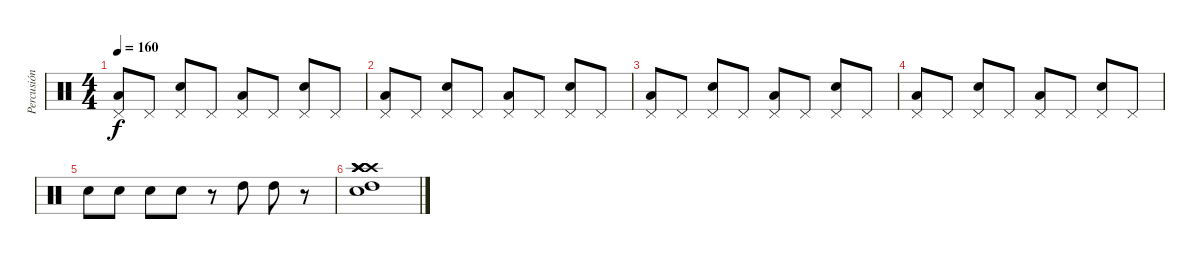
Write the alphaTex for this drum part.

\track ("Percusión" "Percusión") {instrument percussion}
\staff {score}
\articulation defaults
\ts (4 4)
\tempo 160
\clef neutral
\ks c
("Pedal Hi-Hat (hit)" "Low Floor Tom (hit)").8{dy f} "Pedal Hi-Hat (hit)".8 ("Pedal Hi-Hat (hit)" "Snare (hit) 2").8 "Pedal Hi-Hat (hit)".8 ("Pedal Hi-Hat (hit)" "Low Floor Tom (hit)").8 "Pedal Hi-Hat (hit)".8 ("Pedal Hi-Hat (hit)" "Snare (hit) 2").8 "Pedal Hi-Hat (hit)".8 |
("Pedal Hi-Hat (hit)" "Low Floor Tom (hit)").8 "Pedal Hi-Hat (hit)".8 ("Pedal Hi-Hat (hit)" "Snare (hit) 2").8 "Pedal Hi-Hat (hit)".8 ("Pedal Hi-Hat (hit)" "Low Floor Tom (hit)").8 "Pedal Hi-Hat (hit)".8 ("Pedal Hi-Hat (hit)" "Snare (hit) 2").8 "Pedal Hi-Hat (hit)".8 |
("Pedal Hi-Hat (hit)" "Low Floor Tom (hit)").8 "Pedal Hi-Hat (hit)".8 ("Pedal Hi-Hat (hit)" "Snare (hit) 2").8 "Pedal Hi-Hat (hit)".8 ("Pedal Hi-Hat (hit)" "Low Floor Tom (hit)").8 "Pedal Hi-Hat (hit)".8 ("Pedal Hi-Hat (hit)" "Snare (hit) 2").8 "Pedal Hi-Hat (hit)".8 |
("Pedal Hi-Hat (hit)" "Low Floor Tom (hit)").8 "Pedal Hi-Hat (hit)".8 ("Pedal Hi-Hat (hit)" "Snare (hit) 2").8 "Pedal Hi-Hat (hit)".8 ("Pedal Hi-Hat (hit)" "Low Floor Tom (hit)").8 "Pedal Hi-Hat (hit)".8 ("Pedal Hi-Hat (hit)" "Snare (hit) 2").8 "Pedal Hi-Hat (hit)".8 |
"Snare (hit) 2".8 "Snare (hit) 2".8 "Snare (hit) 2".8 "Snare (hit) 2".8 r.8 "High Tom (hit)".8 "High Tom (hit)".8 r.8 |
("Crash high (hit)" "Crash high (hit)" "Crash high (hit)" "Crash high (hit)" "Snare (hit) 2" "High Tom (hit)").1
